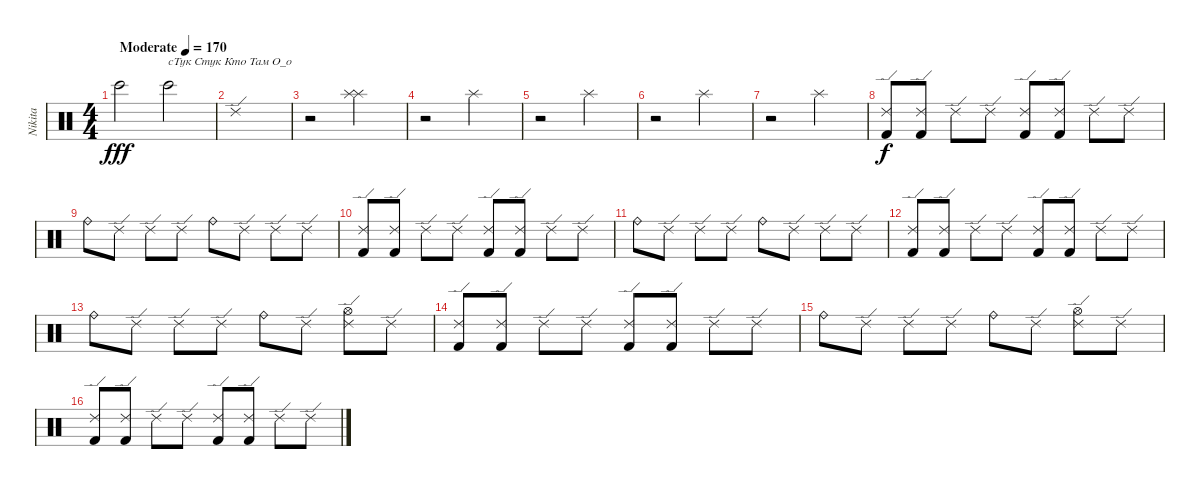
\track ("Nikita" "Nikita") {instrument percussion}
\staff {score}
\articulation defaults
\ts (4 4)
\tempo (170 "Moderate")
\clef neutral
\ks c "Bongo High (hit)".2{dy fff volume 16 balance 8} "Bongo High (hit)".2{txt "сТук Стук Кто Там О_о"}
|
"Ride (edge) 2".1 |
r.2 ("Splash (hit)" "Splash (hit)").2 |
r.2 "Splash (hit)".2 |
r.2 "Splash (hit)".2 |
r.2 "Splash (hit)".2 |
r.2 "Splash (hit)".2 |
("Ride (edge) 2" "Kick (hit) 2").8{dy f} ("Ride (edge) 2" "Kick (hit) 2").8 "Ride (edge) 2".8 "Ride (edge) 2".8 ("Ride (edge) 2" "Kick (hit) 2").8 ("Ride (edge) 2" "Kick (hit) 2").8 "Ride (edge) 2".8 "Ride (edge) 2".8 |
"Ride (bell)".8 "Ride (edge) 2".8 "Ride (edge) 2".8 "Ride (edge) 2".8 "Ride (bell)".8 "Ride (edge) 2".8 "Ride (edge) 2".8 "Ride (edge) 2".8 |
("Ride (edge) 2" "Kick (hit) 2").8 ("Ride (edge) 2" "Kick (hit) 2").8 "Ride (edge) 2".8 "Ride (edge) 2".8 ("Ride (edge) 2" "Kick (hit) 2").8 ("Ride (edge) 2" "Kick (hit) 2").8 "Ride (edge) 2".8 "Ride (edge) 2".8 |
"Ride (bell)".8 "Ride (edge) 2".8 "Ride (edge) 2".8 "Ride (edge) 2".8 "Ride (bell)".8 "Ride (edge) 2".8 "Ride (edge) 2".8 "Ride (edge) 2".8 |
("Ride (edge) 2" "Kick (hit) 2").8 ("Ride (edge) 2" "Kick (hit) 2").8 "Ride (edge) 2".8 "Ride (edge) 2".8 ("Ride (edge) 2" "Kick (hit) 2").8 ("Ride (edge) 2" "Kick (hit) 2").8 "Ride (edge) 2".8 "Ride (edge) 2".8 |
"Ride (bell)".8 "Ride (edge) 2".8 "Ride (edge) 2".8 "Ride (edge) 2".8 "Ride (bell)".8 "Ride (edge) 2".8 ("Ride (edge) 2" "Hi-Hat (open)").8 "Ride (edge) 2".8 |
("Ride (edge) 2" "Kick (hit) 2").8 ("Ride (edge) 2" "Kick (hit) 2").8 "Ride (edge) 2".8 "Ride (edge) 2".8 ("Ride (edge) 2" "Kick (hit) 2").8 ("Ride (edge) 2" "Kick (hit) 2").8 "Ride (edge) 2".8 "Ride (edge) 2".8 |
"Ride (bell)".8 "Ride (edge) 2".8 "Ride (edge) 2".8 "Ride (edge) 2".8 "Ride (bell)".8 "Ride (edge) 2".8 ("Ride (edge) 2" "Hi-Hat (open)").8 "Ride (edge) 2".8 |
("Ride (edge) 2" "Kick (hit) 2").8 ("Ride (edge) 2" "Kick (hit) 2").8 "Ride (edge) 2".8 "Ride (edge) 2".8 ("Ride (edge) 2" "Kick (hit) 2").8 ("Ride (edge) 2" "Kick (hit) 2").8 "Ride (edge) 2".8 "Ride (edge) 2".8
